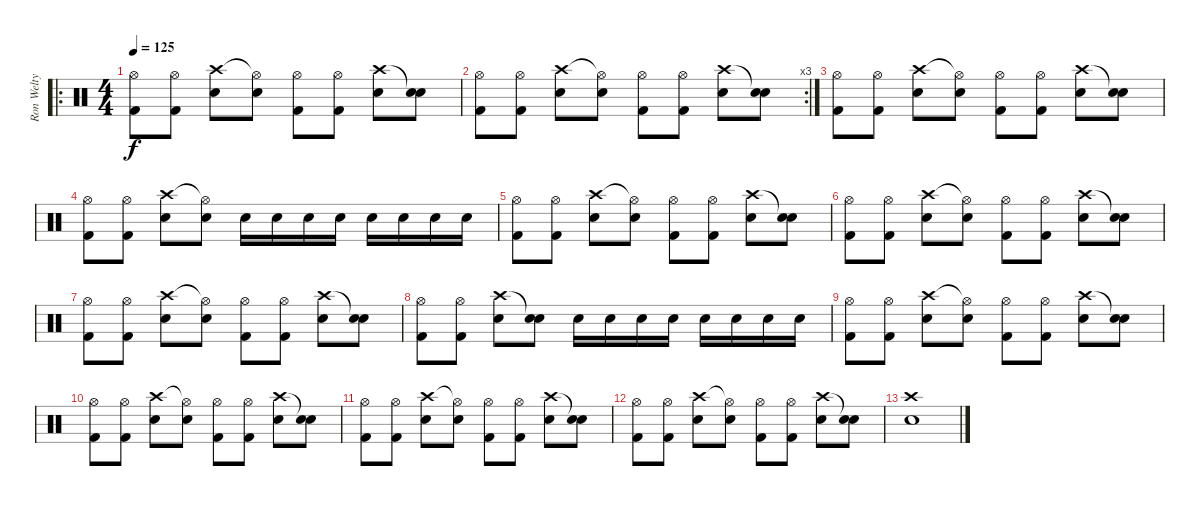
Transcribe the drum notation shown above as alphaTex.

\track ("Ron Welty" "Ron Welty") {instrument percussion}
\staff {score}
\articulation defaults
\ro
\ts (4 4)
\tempo 125
\clef neutral
\ks c
("Kick (hit) 2" "Hi-Hat (open)").8{dy f} ("Kick (hit) 2" "Hi-Hat (open)").8 ("Snare (hit) 2" "Crash high (hit)").8 ("Snare (hit) 2" "Hi-Hat (open)"{t}).8 ("Kick (hit) 2" "Hi-Hat (open)").8 ("Kick (hit) 2" "Hi-Hat (open)").8 ("Snare (hit) 2" "Crash high (hit)").8 ("Snare (hit) 2" "Snare (hit)"{t}).8 |
\rc 3
("Kick (hit) 2" "Hi-Hat (open)").8 ("Kick (hit) 2" "Hi-Hat (open)").8 ("Snare (hit) 2" "Crash high (hit)").8 ("Snare (hit) 2" "Hi-Hat (open)"{t}).8 ("Kick (hit) 2" "Hi-Hat (open)").8 ("Kick (hit) 2" "Hi-Hat (open)").8 ("Snare (hit) 2" "Crash high (hit)").8 ("Snare (hit) 2" "Snare (hit)"{t}).8 |
("Kick (hit) 2" "Hi-Hat (open)").8 ("Kick (hit) 2" "Hi-Hat (open)").8 ("Snare (hit) 2" "Crash high (hit)").8 ("Snare (hit) 2" "Hi-Hat (open)"{t}).8 ("Kick (hit) 2" "Hi-Hat (open)").8 ("Kick (hit) 2" "Hi-Hat (open)").8 ("Snare (hit) 2" "Crash high (hit)").8 ("Snare (hit) 2" "Snare (hit)"{t}).8 |
("Kick (hit) 2" "Hi-Hat (open)").8 ("Kick (hit) 2" "Hi-Hat (open)").8 ("Snare (hit) 2" "Crash high (hit)").8 ("Snare (hit) 2" "Hi-Hat (open)"{t}).8 "Snare (hit) 2".16 "Snare (hit) 2".16 "Snare (hit) 2".16 "Snare (hit) 2".16 "Snare (hit) 2".16 "Snare (hit) 2".16 "Snare (hit) 2".16 "Snare (hit) 2".16 |
("Kick (hit) 2" "Hi-Hat (open)").8 ("Kick (hit) 2" "Hi-Hat (open)").8 ("Snare (hit) 2" "Crash high (hit)").8 ("Snare (hit) 2" "Hi-Hat (open)"{t}).8 ("Kick (hit) 2" "Hi-Hat (open)").8 ("Kick (hit) 2" "Hi-Hat (open)").8 ("Snare (hit) 2" "Crash high (hit)").8 ("Snare (hit) 2" "Snare (hit)"{t}).8 |
("Kick (hit) 2" "Hi-Hat (open)").8 ("Kick (hit) 2" "Hi-Hat (open)").8 ("Snare (hit) 2" "Crash high (hit)").8 ("Snare (hit) 2" "Hi-Hat (open)"{t}).8 ("Kick (hit) 2" "Hi-Hat (open)").8 ("Kick (hit) 2" "Hi-Hat (open)").8 ("Snare (hit) 2" "Crash high (hit)").8 ("Snare (hit) 2" "Snare (hit)"{t}).8 |
("Kick (hit) 2" "Hi-Hat (open)").8 ("Kick (hit) 2" "Hi-Hat (open)").8 ("Snare (hit) 2" "Crash high (hit)").8 ("Snare (hit) 2" "Hi-Hat (open)"{t}).8 ("Kick (hit) 2" "Hi-Hat (open)").8 ("Kick (hit) 2" "Hi-Hat (open)").8 ("Snare (hit) 2" "Crash high (hit)").8 ("Snare (hit) 2" "Snare (hit)"{t}).8 |
("Kick (hit) 2" "Hi-Hat (open)").8 ("Kick (hit) 2" "Hi-Hat (open)").8 ("Snare (hit) 2" "Crash high (hit)").8 ("Snare (hit) 2" "Snare (hit)"{t}).8 "Snare (hit) 2".16 "Snare (hit) 2".16 "Snare (hit) 2".16 "Snare (hit) 2".16 "Snare (hit) 2".16 "Snare (hit) 2".16 "Snare (hit) 2".16 "Snare (hit) 2".16 |
("Kick (hit) 2" "Hi-Hat (open)").8 ("Kick (hit) 2" "Hi-Hat (open)").8 ("Snare (hit) 2" "Crash high (hit)").8 ("Snare (hit) 2" "Hi-Hat (open)"{t}).8 ("Kick (hit) 2" "Hi-Hat (open)").8 ("Kick (hit) 2" "Hi-Hat (open)").8 ("Snare (hit) 2" "Crash high (hit)").8 ("Snare (hit) 2" "Snare (hit)"{t}).8 |
("Kick (hit) 2" "Hi-Hat (open)").8 ("Kick (hit) 2" "Hi-Hat (open)").8 ("Snare (hit) 2" "Crash high (hit)").8 ("Snare (hit) 2" "Hi-Hat (open)"{t}).8 ("Kick (hit) 2" "Hi-Hat (open)").8 ("Kick (hit) 2" "Hi-Hat (open)").8 ("Snare (hit) 2" "Crash high (hit)").8 ("Snare (hit) 2" "Snare (hit)"{t}).8 |
("Kick (hit) 2" "Hi-Hat (open)").8 ("Kick (hit) 2" "Hi-Hat (open)").8 ("Snare (hit) 2" "Crash high (hit)").8 ("Snare (hit) 2" "Hi-Hat (open)"{t}).8 ("Kick (hit) 2" "Hi-Hat (open)").8 ("Kick (hit) 2" "Hi-Hat (open)").8 ("Snare (hit) 2" "Crash high (hit)").8 ("Snare (hit) 2" "Snare (hit)"{t}).8 |
("Kick (hit) 2" "Hi-Hat (open)").8 ("Kick (hit) 2" "Hi-Hat (open)").8 ("Snare (hit) 2" "Crash high (hit)").8 ("Snare (hit) 2" "Hi-Hat (open)"{t}).8 ("Kick (hit) 2" "Hi-Hat (open)").8 ("Kick (hit) 2" "Hi-Hat (open)").8 ("Snare (hit) 2" "Crash high (hit)").8 ("Snare (hit) 2" "Snare (hit)"{t}).8 |
("Snare (hit) 2" "Crash high (hit)").1
